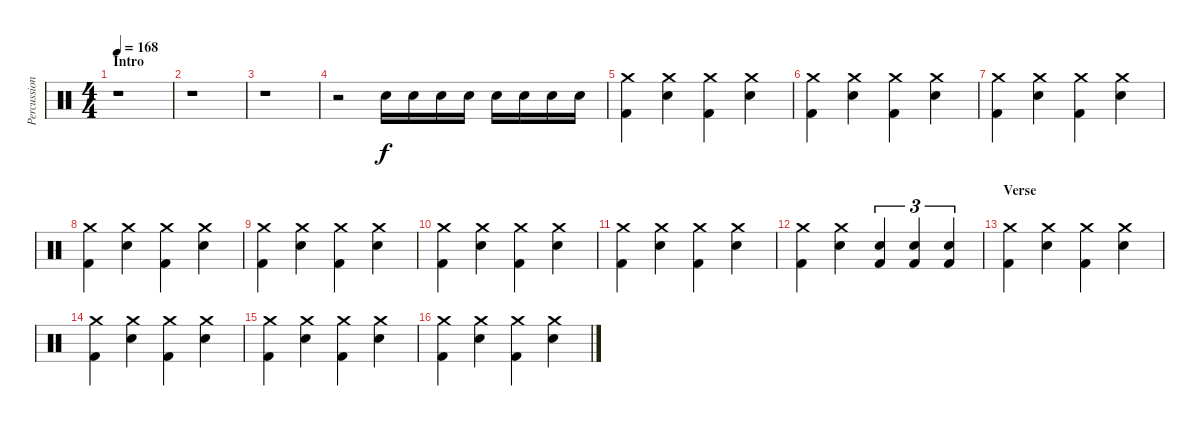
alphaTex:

\track ("Percussion" "Percussion") {instrument percussion}
\staff {score}
\articulation defaults
\ts (4 4)
\section ("" "Intro")
\tempo 168
\clef neutral
\ks c
r.1{dy f} |
r.1 |
r.1 |
r.2 "Snare (hit) 2".16 "Snare (hit) 2".16 "Snare (hit) 2".16 "Snare (hit) 2".16 "Snare (hit) 2".16 "Snare (hit) 2".16 "Snare (hit) 2".16 "Snare (hit) 2".16 |
("Crash medium (hit)" "Kick (hit) 2").4 ("Crash medium (hit)" "Snare (hit) 2").4 ("Crash medium (hit)" "Kick (hit) 2").4 ("Crash medium (hit)" "Snare (hit) 2").4 |
("Crash medium (hit)" "Kick (hit) 2").4 ("Crash medium (hit)" "Snare (hit) 2").4 ("Crash medium (hit)" "Kick (hit) 2").4 ("Crash medium (hit)" "Snare (hit) 2").4 |
("Crash medium (hit)" "Kick (hit) 2").4 ("Crash medium (hit)" "Snare (hit) 2").4 ("Crash medium (hit)" "Kick (hit) 2").4 ("Crash medium (hit)" "Snare (hit) 2").4 |
("Crash medium (hit)" "Kick (hit) 2").4 ("Crash medium (hit)" "Snare (hit) 2").4 ("Crash medium (hit)" "Kick (hit) 2").4 ("Crash medium (hit)" "Snare (hit) 2").4 |
("Crash medium (hit)" "Kick (hit) 2").4 ("Crash medium (hit)" "Snare (hit) 2").4 ("Crash medium (hit)" "Kick (hit) 2").4 ("Crash medium (hit)" "Snare (hit) 2").4 |
("Crash medium (hit)" "Kick (hit) 2").4 ("Crash medium (hit)" "Snare (hit) 2").4 ("Crash medium (hit)" "Kick (hit) 2").4 ("Crash medium (hit)" "Snare (hit) 2").4 |
("Crash medium (hit)" "Kick (hit) 2").4 ("Crash medium (hit)" "Snare (hit) 2").4 ("Crash medium (hit)" "Kick (hit) 2").4 ("Crash medium (hit)" "Snare (hit) 2").4 |
("Crash medium (hit)" "Kick (hit) 2").4 ("Crash medium (hit)" "Snare (hit) 2").4 ("Snare (hit) 2" "Kick (hit) 2").4{tu (3 2)} ("Snare (hit) 2" "Kick (hit) 2").4{tu (3 2)} ("Snare (hit) 2" "Kick (hit) 2").4{tu (3 2)} |
\section ("" "Verse")
("Crash medium (hit)" "Kick (hit) 2").4 ("Crash medium (hit)" "Snare (hit) 2").4 ("Crash medium (hit)" "Kick (hit) 2").4 ("Crash medium (hit)" "Snare (hit) 2").4 |
("Crash medium (hit)" "Kick (hit) 2").4 ("Crash medium (hit)" "Snare (hit) 2").4 ("Crash medium (hit)" "Kick (hit) 2").4 ("Crash medium (hit)" "Snare (hit) 2").4 |
("Crash medium (hit)" "Kick (hit) 2").4 ("Crash medium (hit)" "Snare (hit) 2").4 ("Crash medium (hit)" "Kick (hit) 2").4 ("Crash medium (hit)" "Snare (hit) 2").4 |
("Crash medium (hit)" "Kick (hit) 2").4 ("Crash medium (hit)" "Snare (hit) 2").4 ("Crash medium (hit)" "Kick (hit) 2").4 ("Crash medium (hit)" "Snare (hit) 2").4
